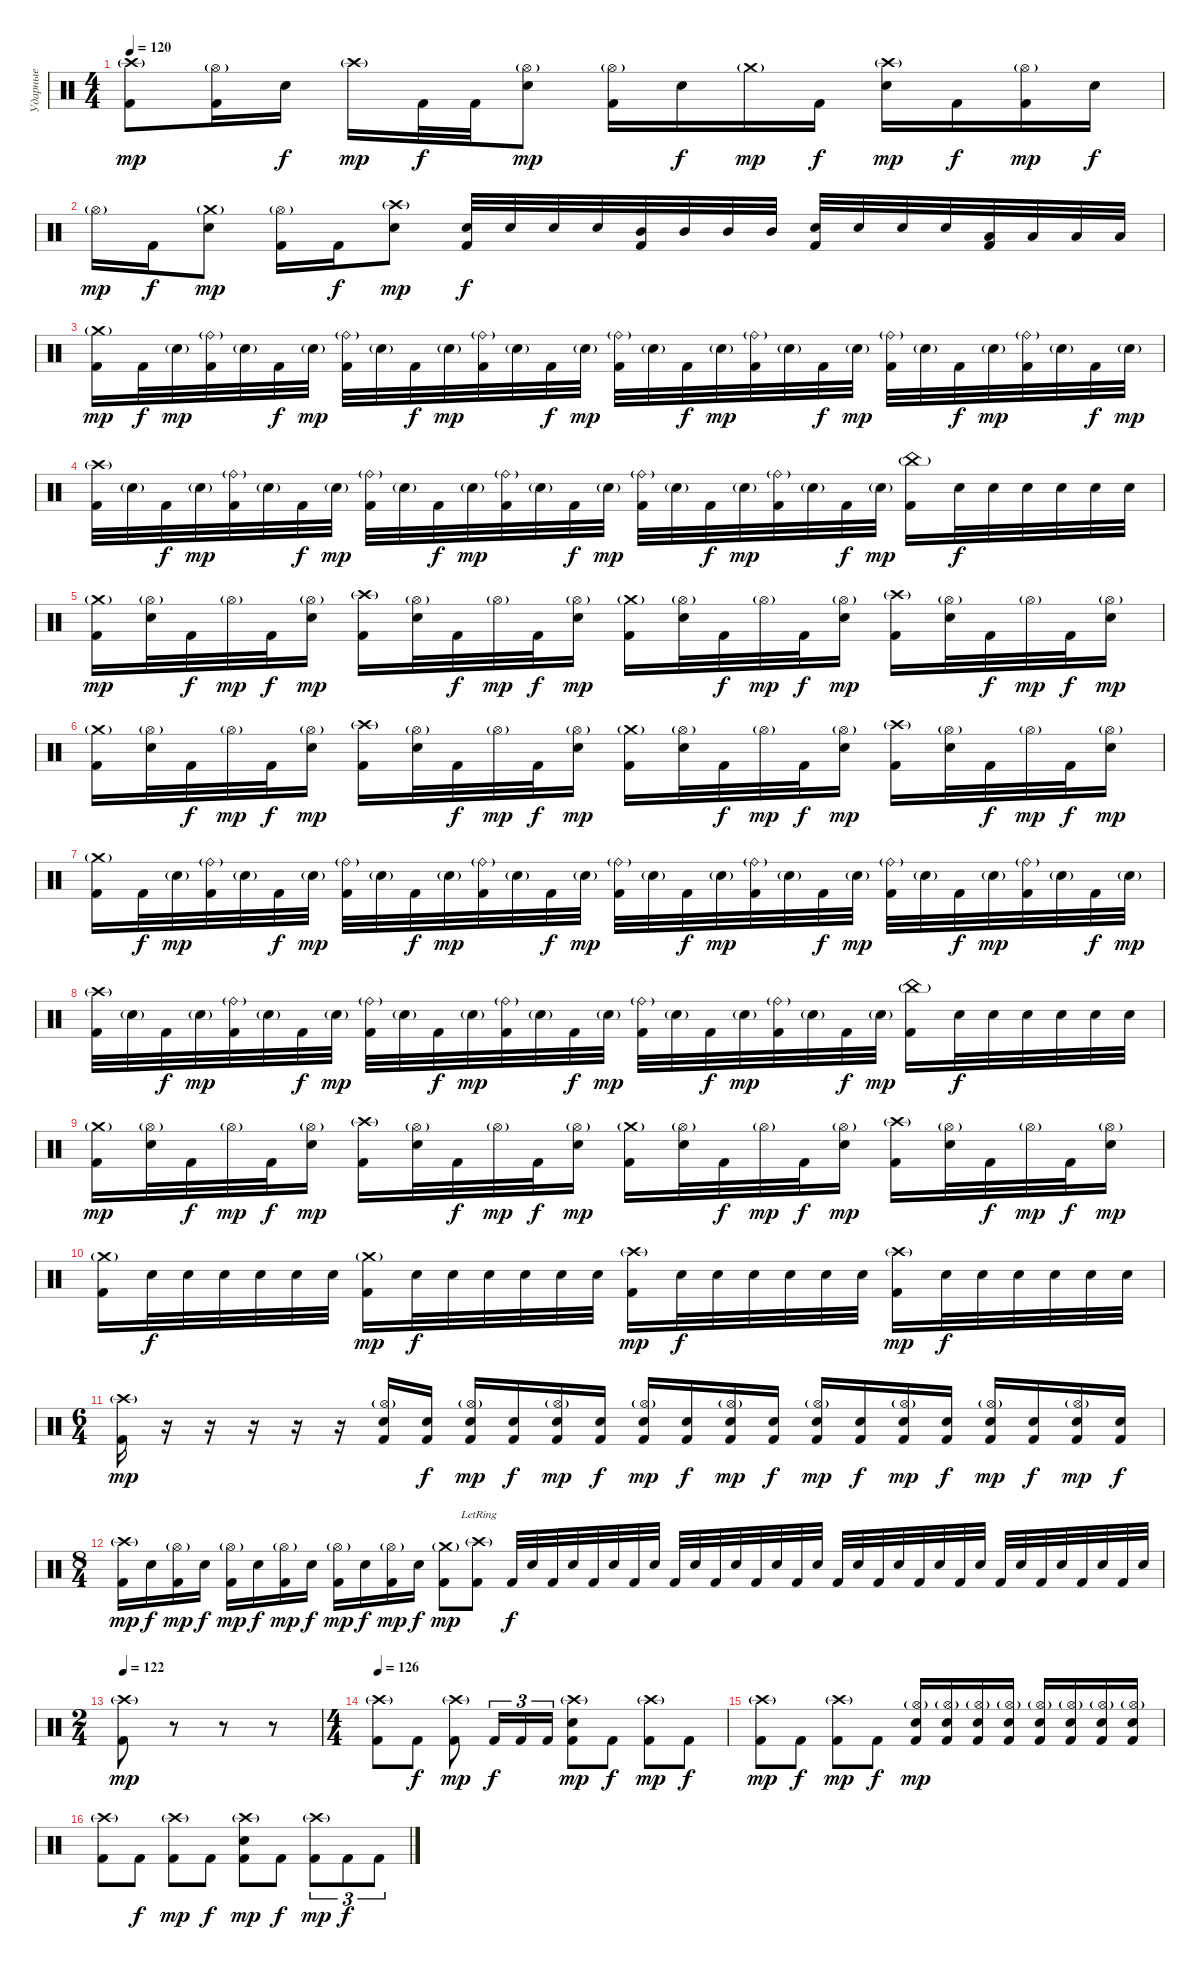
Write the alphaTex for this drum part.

\track ("Ударные" "Ударные") {instrument percussion}
\staff {score}
\articulation defaults
\ts (4 4)
\tempo 120
\clef neutral
\ks c
("Crash high (hit)"{g} "Kick (hit) 2").8{dy mp} ("Hi-Hat (open)"{g} "Kick (hit) 2").16 "Electric Snare (hit)".16{dy f} "Crash high (hit)"{g}.16{dy mp} "Kick (hit) 2".32{dy f} "Kick (hit) 2".32 ("Hi-Hat (open)"{g} "Electric Snare (hit)").8{dy mp} ("Hi-Hat (open)"{g} "Kick (hit) 2").16 "Electric Snare (hit)".16{dy f} "Crash medium (hit)"{g}.16{dy mp} "Kick (hit) 2".16{dy f} ("Crash high (hit)"{g} "Electric Snare (hit)").16{dy mp} "Kick (hit) 2".16{dy f} ("Hi-Hat (open)"{g} "Kick (hit) 2").16{dy mp} "Electric Snare (hit)".16{dy f} |
"Hi-Hat (open)"{g}.16{dy mp} "Kick (hit) 2".16{dy f} ("Crash medium (hit)"{g} "Electric Snare (hit)").8{dy mp} ("Hi-Hat (open)"{g} "Kick (hit) 2").16 "Kick (hit) 2".16{dy f} ("Crash high (hit)"{g} "Electric Snare (hit)").8{dy mp} ("Electric Snare (hit)" "Kick (hit) 2").32{dy f} "Electric Snare (hit)".32 "Electric Snare (hit)".32 "Electric Snare (hit)".32 ("Mid Tom (hit)" "Kick (hit) 2").32 "Mid Tom (hit)".32 "Mid Tom (hit)".32 "Mid Tom (hit)".32 ("Electric Snare (hit)" "Kick (hit) 2").32 "Electric Snare (hit)".32 "Electric Snare (hit)".32 "Electric Snare (hit)".32 ("Low Tom (hit)" "Kick (hit) 2").32 "Low Tom (hit)".32 "Low Tom (hit)".32 "Low Tom (hit)".32 |
("Crash medium (hit)"{g} "Kick (hit) 2").16{dy mp} "Kick (hit) 2".32{dy f} "Electric Snare (hit)"{g}.32{dy mp} ("Ride (bell)"{g} "Kick (hit) 2").32 "Electric Snare (hit)"{g}.32 "Kick (hit) 2".32{dy f} "Electric Snare (hit)"{g}.32{dy mp} ("Ride (bell)"{g} "Kick (hit) 2").32 "Electric Snare (hit)"{g}.32 "Kick (hit) 2".32{dy f} "Electric Snare (hit)"{g}.32{dy mp} ("Ride (bell)"{g} "Kick (hit) 2").32 "Electric Snare (hit)"{g}.32 "Kick (hit) 2".32{dy f} "Electric Snare (hit)"{g}.32{dy mp} ("Ride (bell)"{g} "Kick (hit) 2").32 "Electric Snare (hit)"{g}.32 "Kick (hit) 2".32{dy f} "Electric Snare (hit)"{g}.32{dy mp} ("Ride (bell)"{g} "Kick (hit) 2").32 "Electric Snare (hit)"{g}.32 "Kick (hit) 2".32{dy f} "Electric Snare (hit)"{g}.32{dy mp} ("Ride (bell)"{g} "Kick (hit) 2").32 "Electric Snare (hit)"{g}.32 "Kick (hit) 2".32{dy f} "Electric Snare (hit)"{g}.32{dy mp} ("Ride (bell)"{g} "Kick (hit) 2").32 "Electric Snare (hit)"{g}.32 "Kick (hit) 2".32{dy f} "Electric Snare (hit)"{g}.32{dy mp} |
("Crash high (hit)"{g} "Kick (hit) 2").32 "Electric Snare (hit)"{g}.32 "Kick (hit) 2".32{dy f} "Electric Snare (hit)"{g}.32{dy mp} ("Ride (bell)"{g} "Kick (hit) 2").32 "Electric Snare (hit)"{g}.32 "Kick (hit) 2".32{dy f} "Electric Snare (hit)"{g}.32{dy mp} ("Ride (bell)"{g} "Kick (hit) 2").32 "Electric Snare (hit)"{g}.32 "Kick (hit) 2".32{dy f} "Electric Snare (hit)"{g}.32{dy mp} ("Ride (bell)"{g} "Kick (hit) 2").32 "Electric Snare (hit)"{g}.32 "Kick (hit) 2".32{dy f} "Electric Snare (hit)"{g}.32{dy mp} ("Ride (bell)"{g} "Kick (hit) 2").32 "Electric Snare (hit)"{g}.32 "Kick (hit) 2".32{dy f} "Electric Snare (hit)"{g}.32{dy mp} ("Ride (bell)"{g} "Kick (hit) 2").32 "Electric Snare (hit)"{g}.32 "Kick (hit) 2".32{dy f} "Electric Snare (hit)"{g}.32{dy mp} ("China (hit)"{g} "Kick (hit) 2").16 "Electric Snare (hit)".32{dy f} "Electric Snare (hit)".32 "Electric Snare (hit)".32 "Electric Snare (hit)".32 "Electric Snare (hit)".32 "Electric Snare (hit)".32 |
("Crash medium (hit)"{g} "Kick (hit) 2").16{dy mp} ("Hi-Hat (open)"{g} "Electric Snare (hit)").32 "Kick (hit) 2".32{dy f} "Hi-Hat (open)"{g}.32{dy mp} "Kick (hit) 2".32{dy f} ("Hi-Hat (open)"{g} "Electric Snare (hit)").16{dy mp} ("Crash high (hit)"{g} "Kick (hit) 2").16 ("Hi-Hat (open)"{g} "Electric Snare (hit)").32 "Kick (hit) 2".32{dy f} "Hi-Hat (open)"{g}.32{dy mp} "Kick (hit) 2".32{dy f} ("Hi-Hat (open)"{g} "Electric Snare (hit)").16{dy mp} ("Crash medium (hit)"{g} "Kick (hit) 2").16 ("Hi-Hat (open)"{g} "Electric Snare (hit)").32 "Kick (hit) 2".32{dy f} "Hi-Hat (open)"{g}.32{dy mp} "Kick (hit) 2".32{dy f} ("Hi-Hat (open)"{g} "Electric Snare (hit)").16{dy mp} ("Crash high (hit)"{g} "Kick (hit) 2").16 ("Hi-Hat (open)"{g} "Electric Snare (hit)").32 "Kick (hit) 2".32{dy f} "Hi-Hat (open)"{g}.32{dy mp} "Kick (hit) 2".32{dy f} ("Hi-Hat (open)"{g} "Electric Snare (hit)").16{dy mp} |
("Crash medium (hit)"{g} "Kick (hit) 2").16 ("Hi-Hat (open)"{g} "Electric Snare (hit)").32 "Kick (hit) 2".32{dy f} "Hi-Hat (open)"{g}.32{dy mp} "Kick (hit) 2".32{dy f} ("Hi-Hat (open)"{g} "Electric Snare (hit)").16{dy mp} ("Crash high (hit)"{g} "Kick (hit) 2").16 ("Hi-Hat (open)"{g} "Electric Snare (hit)").32 "Kick (hit) 2".32{dy f} "Hi-Hat (open)"{g}.32{dy mp} "Kick (hit) 2".32{dy f} ("Hi-Hat (open)"{g} "Electric Snare (hit)").16{dy mp} ("Crash medium (hit)"{g} "Kick (hit) 2").16 ("Hi-Hat (open)"{g} "Electric Snare (hit)").32 "Kick (hit) 2".32{dy f} "Hi-Hat (open)"{g}.32{dy mp} "Kick (hit) 2".32{dy f} ("Hi-Hat (open)"{g} "Electric Snare (hit)").16{dy mp} ("Crash high (hit)"{g} "Kick (hit) 2").16 ("Hi-Hat (open)"{g} "Electric Snare (hit)").32 "Kick (hit) 2".32{dy f} "Hi-Hat (open)"{g}.32{dy mp} "Kick (hit) 2".32{dy f} ("Hi-Hat (open)"{g} "Electric Snare (hit)").16{dy mp} |
("Crash medium (hit)"{g} "Kick (hit) 2").16 "Kick (hit) 2".32{dy f} "Electric Snare (hit)"{g}.32{dy mp} ("Ride (bell)"{g} "Kick (hit) 2").32 "Electric Snare (hit)"{g}.32 "Kick (hit) 2".32{dy f} "Electric Snare (hit)"{g}.32{dy mp} ("Ride (bell)"{g} "Kick (hit) 2").32 "Electric Snare (hit)"{g}.32 "Kick (hit) 2".32{dy f} "Electric Snare (hit)"{g}.32{dy mp} ("Ride (bell)"{g} "Kick (hit) 2").32 "Electric Snare (hit)"{g}.32 "Kick (hit) 2".32{dy f} "Electric Snare (hit)"{g}.32{dy mp} ("Ride (bell)"{g} "Kick (hit) 2").32 "Electric Snare (hit)"{g}.32 "Kick (hit) 2".32{dy f} "Electric Snare (hit)"{g}.32{dy mp} ("Ride (bell)"{g} "Kick (hit) 2").32 "Electric Snare (hit)"{g}.32 "Kick (hit) 2".32{dy f} "Electric Snare (hit)"{g}.32{dy mp} ("Ride (bell)"{g} "Kick (hit) 2").32 "Electric Snare (hit)"{g}.32 "Kick (hit) 2".32{dy f} "Electric Snare (hit)"{g}.32{dy mp} ("Ride (bell)"{g} "Kick (hit) 2").32 "Electric Snare (hit)"{g}.32 "Kick (hit) 2".32{dy f} "Electric Snare (hit)"{g}.32{dy mp} |
("Crash high (hit)"{g} "Kick (hit) 2").32 "Electric Snare (hit)"{g}.32 "Kick (hit) 2".32{dy f} "Electric Snare (hit)"{g}.32{dy mp} ("Ride (bell)"{g} "Kick (hit) 2").32 "Electric Snare (hit)"{g}.32 "Kick (hit) 2".32{dy f} "Electric Snare (hit)"{g}.32{dy mp} ("Ride (bell)"{g} "Kick (hit) 2").32 "Electric Snare (hit)"{g}.32 "Kick (hit) 2".32{dy f} "Electric Snare (hit)"{g}.32{dy mp} ("Ride (bell)"{g} "Kick (hit) 2").32 "Electric Snare (hit)"{g}.32 "Kick (hit) 2".32{dy f} "Electric Snare (hit)"{g}.32{dy mp} ("Ride (bell)"{g} "Kick (hit) 2").32 "Electric Snare (hit)"{g}.32 "Kick (hit) 2".32{dy f} "Electric Snare (hit)"{g}.32{dy mp} ("Ride (bell)"{g} "Kick (hit) 2").32 "Electric Snare (hit)"{g}.32 "Kick (hit) 2".32{dy f} "Electric Snare (hit)"{g}.32{dy mp} ("China (hit)"{g} "Kick (hit) 2").16 "Electric Snare (hit)".32{dy f} "Electric Snare (hit)".32 "Electric Snare (hit)".32 "Electric Snare (hit)".32 "Electric Snare (hit)".32 "Electric Snare (hit)".32 |
("Crash medium (hit)"{g} "Kick (hit) 2").16{dy mp} ("Hi-Hat (open)"{g} "Electric Snare (hit)").32 "Kick (hit) 2".32{dy f} "Hi-Hat (open)"{g}.32{dy mp} "Kick (hit) 2".32{dy f} ("Hi-Hat (open)"{g} "Electric Snare (hit)").16{dy mp} ("Crash high (hit)"{g} "Kick (hit) 2").16 ("Hi-Hat (open)"{g} "Electric Snare (hit)").32 "Kick (hit) 2".32{dy f} "Hi-Hat (open)"{g}.32{dy mp} "Kick (hit) 2".32{dy f} ("Hi-Hat (open)"{g} "Electric Snare (hit)").16{dy mp} ("Crash medium (hit)"{g} "Kick (hit) 2").16 ("Hi-Hat (open)"{g} "Electric Snare (hit)").32 "Kick (hit) 2".32{dy f} "Hi-Hat (open)"{g}.32{dy mp} "Kick (hit) 2".32{dy f} ("Hi-Hat (open)"{g} "Electric Snare (hit)").16{dy mp} ("Crash high (hit)"{g} "Kick (hit) 2").16 ("Hi-Hat (open)"{g} "Electric Snare (hit)").32 "Kick (hit) 2".32{dy f} "Hi-Hat (open)"{g}.32{dy mp} "Kick (hit) 2".32{dy f} ("Hi-Hat (open)"{g} "Electric Snare (hit)").16{dy mp} |
("Crash medium (hit)"{g} "Kick (hit) 2").16 "Electric Snare (hit)".32{dy f} "Electric Snare (hit)".32 "Electric Snare (hit)".32 "Electric Snare (hit)".32 "Electric Snare (hit)".32 "Electric Snare (hit)".32 ("Crash medium (hit)"{g} "Kick (hit) 2").16{dy mp} "Electric Snare (hit)".32{dy f} "Electric Snare (hit)".32 "Electric Snare (hit)".32 "Electric Snare (hit)".32 "Electric Snare (hit)".32 "Electric Snare (hit)".32 ("Crash high (hit)"{g} "Kick (hit) 2").16{dy mp} "Electric Snare (hit)".32{dy f} "Electric Snare (hit)".32 "Electric Snare (hit)".32 "Electric Snare (hit)".32 "Electric Snare (hit)".32 "Electric Snare (hit)".32 ("Crash high (hit)"{g} "Kick (hit) 2").16{dy mp} "Electric Snare (hit)".32{dy f} "Electric Snare (hit)".32 "Electric Snare (hit)".32 "Electric Snare (hit)".32 "Electric Snare (hit)".32 "Electric Snare (hit)".32 |
\ts (6 4)
("Crash high (hit)"{g} "Kick (hit) 2").16{dy mp} r.16 r.16{volume 0} r.16 r.16 r.16 ("Hi-Hat (open)"{g} "Electric Snare (hit)" "Kick (hit) 2").16{volume 16} ("Electric Snare (hit)" "Kick (hit) 2").16{dy f} ("Hi-Hat (open)"{g} "Electric Snare (hit)" "Kick (hit) 2").16{dy mp} ("Electric Snare (hit)" "Kick (hit) 2").16{dy f} ("Hi-Hat (open)"{g} "Electric Snare (hit)" "Kick (hit) 2").16{dy mp} ("Electric Snare (hit)" "Kick (hit) 2").16{dy f} ("Hi-Hat (open)"{g} "Electric Snare (hit)" "Kick (hit) 2").16{dy mp} ("Electric Snare (hit)" "Kick (hit) 2").16{dy f} ("Hi-Hat (open)"{g} "Electric Snare (hit)" "Kick (hit) 2").16{dy mp} ("Electric Snare (hit)" "Kick (hit) 2").16{dy f} ("Hi-Hat (open)"{g} "Electric Snare (hit)" "Kick (hit) 2").16{dy mp} ("Electric Snare (hit)" "Kick (hit) 2").16{dy f} ("Hi-Hat (open)"{g} "Electric Snare (hit)" "Kick (hit) 2").16{dy mp} ("Electric Snare (hit)" "Kick (hit) 2").16{dy f} ("Hi-Hat (open)"{g} "Electric Snare (hit)" "Kick (hit) 2").16{dy mp} ("Electric Snare (hit)" "Kick (hit) 2").16{dy f} ("Hi-Hat (open)"{g} "Electric Snare (hit)" "Kick (hit) 2").16{dy mp} ("Electric Snare (hit)" "Kick (hit) 2").16{dy f} |
\ts (8 4)
("Crash high (hit)"{g} "Kick (hit) 2").16{dy mp} "Electric Snare (hit)".16{dy f} ("Hi-Hat (open)"{g} "Kick (hit) 2").16{dy mp} "Electric Snare (hit)".16{dy f} ("Hi-Hat (open)"{g} "Kick (hit) 2").16{dy mp} "Electric Snare (hit)".16{dy f} ("Hi-Hat (open)"{g} "Kick (hit) 2").16{dy mp} "Electric Snare (hit)".16{dy f} ("Hi-Hat (open)"{g} "Kick (hit) 2").16{dy mp} "Electric Snare (hit)".16{dy f} ("Hi-Hat (open)"{g} "Kick (hit) 2").16{dy mp} "Electric Snare (hit)".16{dy f} ("Crash medium (hit)"{g} "Kick (hit) 2").8{dy mp} ("Crash high (hit)"{g lr} "Kick (hit) 2").8 "Kick (hit) 2".32{dy f} "Electric Snare (hit)".32 "Kick (hit) 2".32 "Electric Snare (hit)".32 "Kick (hit) 2".32 "Electric Snare (hit)".32 "Kick (hit) 2".32 "Electric Snare (hit)".32 "Kick (hit) 2".32 "Electric Snare (hit)".32 "Kick (hit) 2".32 "Electric Snare (hit)".32 "Kick (hit) 2".32 "Electric Snare (hit)".32 "Kick (hit) 2".32 "Electric Snare (hit)".32 "Kick (hit) 2".32 "Electric Snare (hit)".32 "Kick (hit) 2".32 "Electric Snare (hit)".32 "Kick (hit) 2".32 "Electric Snare (hit)".32 "Kick (hit) 2".32 "Electric Snare (hit)".32 "Kick (hit) 2".32 "Electric Snare (hit)".32 "Kick (hit) 2".32 "Electric Snare (hit)".32 "Kick (hit) 2".32 "Electric Snare (hit)".32 "Kick (hit) 2".32 "Electric Snare (hit)".32 |
\ts (2 4)
\tempo 122
("Crash high (hit)"{g} "Kick (hit) 2").8{dy mp} r.8{volume 0} r.8 r.8 |
\ts (4 4)
\tempo 126
("Crash high (hit)"{g} "Kick (hit) 2").8{volume 16} "Kick (hit) 2".8{dy f} ("Crash high (hit)"{g} "Kick (hit) 2").8{dy mp} "Kick (hit) 2".16{tu (3 2) dy f} "Kick (hit) 2".16{tu (3 2)} "Kick (hit) 2".16{tu (3 2)} ("Crash high (hit)"{g} "Electric Snare (hit)" "Kick (hit) 2").8{dy mp} "Kick (hit) 2".8{dy f} ("Crash high (hit)"{g} "Kick (hit) 2").8{dy mp} "Kick (hit) 2".8{dy f} |
("Crash high (hit)"{g} "Kick (hit) 2").8{dy mp} "Kick (hit) 2".8{dy f} ("Crash high (hit)"{g} "Kick (hit) 2").8{dy mp} "Kick (hit) 2".8{dy f} ("Hi-Hat (open)"{g} "Electric Snare (hit)" "Kick (hit) 2").16{dy mp} ("Hi-Hat (open)"{g} "Electric Snare (hit)" "Kick (hit) 2").16 ("Hi-Hat (open)"{g} "Electric Snare (hit)" "Kick (hit) 2").16 ("Hi-Hat (open)"{g} "Electric Snare (hit)" "Kick (hit) 2").16 ("Hi-Hat (open)"{g} "Electric Snare (hit)" "Kick (hit) 2").16 ("Hi-Hat (open)"{g} "Electric Snare (hit)" "Kick (hit) 2").16 ("Hi-Hat (open)"{g} "Electric Snare (hit)" "Kick (hit) 2").16 ("Hi-Hat (open)"{g} "Electric Snare (hit)" "Kick (hit) 2").16 |
("Crash high (hit)"{g} "Kick (hit) 2").8 "Kick (hit) 2".8{dy f} ("Crash high (hit)"{g} "Kick (hit) 2").8{dy mp} "Kick (hit) 2".8{dy f} ("Crash high (hit)"{g} "Electric Snare (hit)" "Kick (hit) 2").8{dy mp} "Kick (hit) 2".8{dy f} ("Crash high (hit)"{g} "Kick (hit) 2").8{tu (3 2) dy mp} "Kick (hit) 2".8{tu (3 2) dy f} "Kick (hit) 2".8{tu (3 2)}
